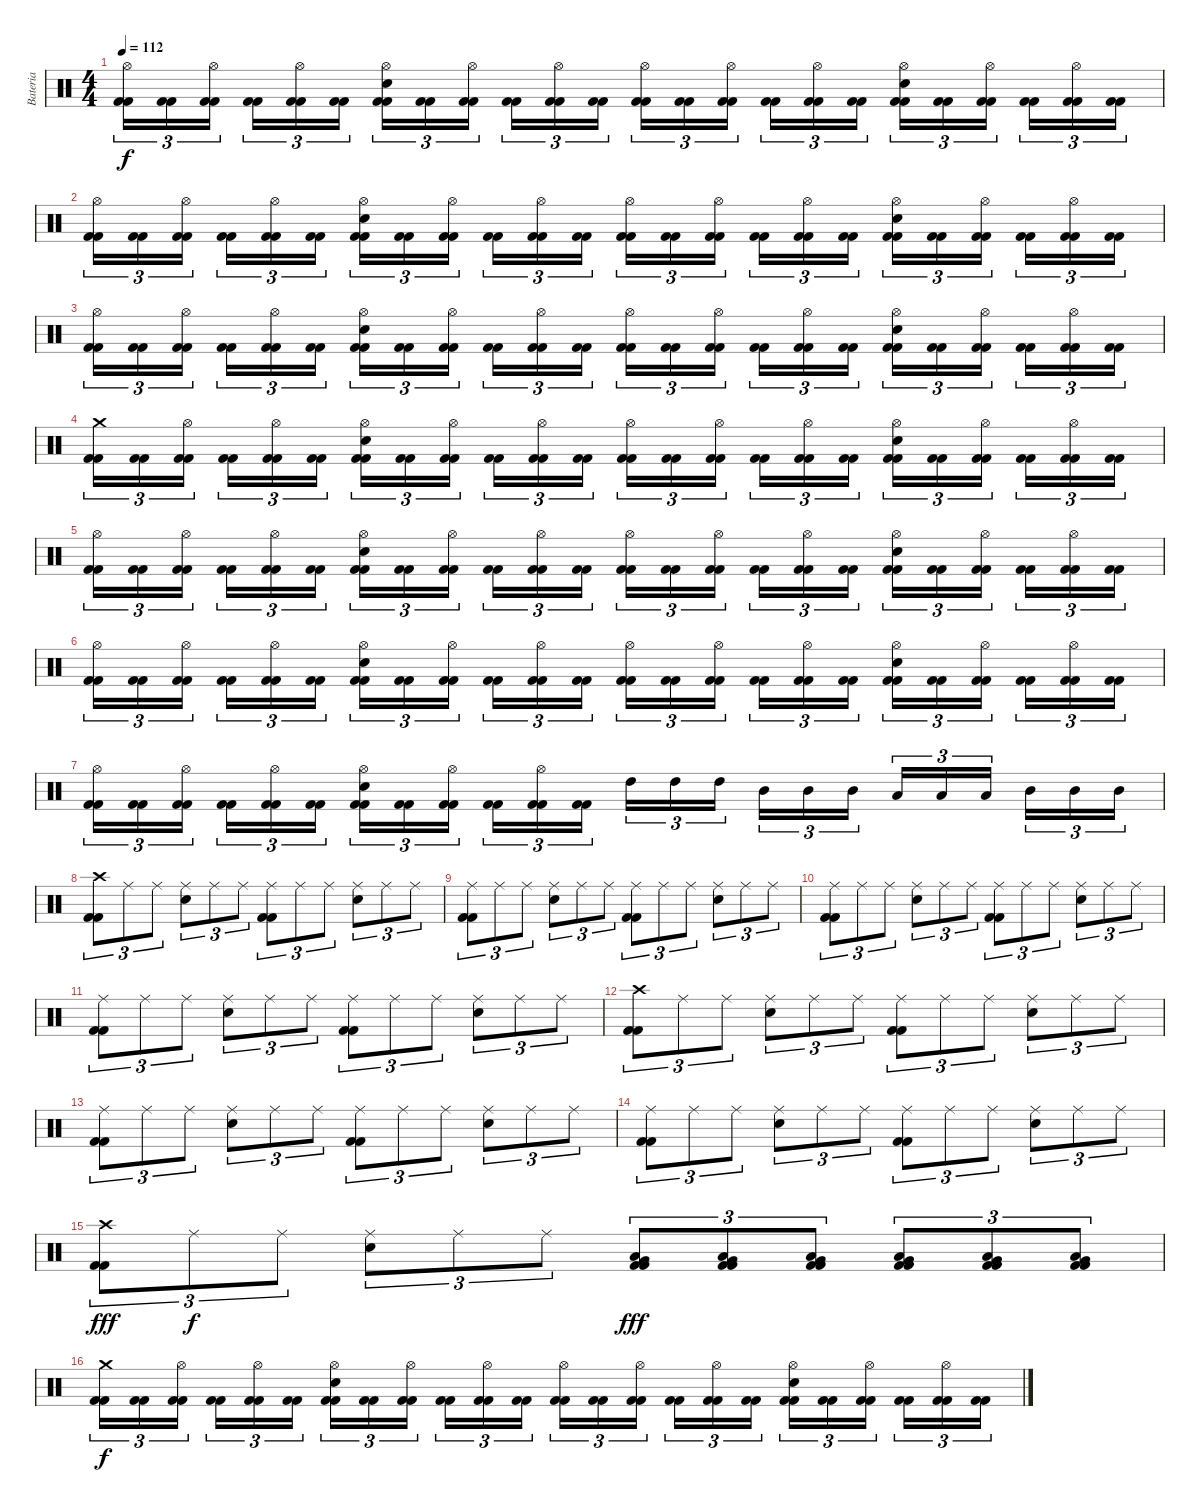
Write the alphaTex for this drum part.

\track ("Bateria" "Bateria") {instrument percussion}
\staff {score}
\articulation defaults
\ts (4 4)
\tempo 112
\clef neutral
\ks c
("Kick (hit) 2" "Kick (hit) 2" "Hi-Hat (open)").16{tu (3 2) dy f} ("Kick (hit) 2" "Kick (hit) 2").16{tu (3 2)} ("Kick (hit) 2" "Kick (hit) 2" "Hi-Hat (open)").16{tu (3 2)} ("Kick (hit) 2" "Kick (hit) 2").16{tu (3 2)} ("Kick (hit) 2" "Kick (hit) 2" "Hi-Hat (open)").16{tu (3 2)} ("Kick (hit) 2" "Kick (hit) 2").16{tu (3 2)} ("Kick (hit) 2" "Kick (hit) 2" "Snare (hit) 2" "Hi-Hat (open)").16{tu (3 2)} ("Kick (hit) 2" "Kick (hit) 2").16{tu (3 2)} ("Kick (hit) 2" "Kick (hit) 2" "Hi-Hat (open)").16{tu (3 2)} ("Kick (hit) 2" "Kick (hit) 2").16{tu (3 2)} ("Kick (hit) 2" "Kick (hit) 2" "Hi-Hat (open)").16{tu (3 2)} ("Kick (hit) 2" "Kick (hit) 2").16{tu (3 2)} ("Kick (hit) 2" "Kick (hit) 2" "Hi-Hat (open)").16{tu (3 2)} ("Kick (hit) 2" "Kick (hit) 2").16{tu (3 2)} ("Kick (hit) 2" "Kick (hit) 2" "Hi-Hat (open)").16{tu (3 2)} ("Kick (hit) 2" "Kick (hit) 2").16{tu (3 2)} ("Kick (hit) 2" "Kick (hit) 2" "Hi-Hat (open)").16{tu (3 2)} ("Kick (hit) 2" "Kick (hit) 2").16{tu (3 2)} ("Kick (hit) 2" "Kick (hit) 2" "Snare (hit) 2" "Hi-Hat (open)").16{tu (3 2)} ("Kick (hit) 2" "Kick (hit) 2").16{tu (3 2)} ("Kick (hit) 2" "Kick (hit) 2" "Hi-Hat (open)").16{tu (3 2)} ("Kick (hit) 2" "Kick (hit) 2").16{tu (3 2)} ("Kick (hit) 2" "Kick (hit) 2" "Hi-Hat (open)").16{tu (3 2)} ("Kick (hit) 2" "Kick (hit) 2").16{tu (3 2)} |
("Kick (hit) 2" "Kick (hit) 2" "Hi-Hat (open)").16{tu (3 2)} ("Kick (hit) 2" "Kick (hit) 2").16{tu (3 2)} ("Kick (hit) 2" "Kick (hit) 2" "Hi-Hat (open)").16{tu (3 2)} ("Kick (hit) 2" "Kick (hit) 2").16{tu (3 2)} ("Kick (hit) 2" "Kick (hit) 2" "Hi-Hat (open)").16{tu (3 2)} ("Kick (hit) 2" "Kick (hit) 2").16{tu (3 2)} ("Kick (hit) 2" "Kick (hit) 2" "Snare (hit) 2" "Hi-Hat (open)").16{tu (3 2)} ("Kick (hit) 2" "Kick (hit) 2").16{tu (3 2)} ("Kick (hit) 2" "Kick (hit) 2" "Hi-Hat (open)").16{tu (3 2)} ("Kick (hit) 2" "Kick (hit) 2").16{tu (3 2)} ("Kick (hit) 2" "Kick (hit) 2" "Hi-Hat (open)").16{tu (3 2)} ("Kick (hit) 2" "Kick (hit) 2").16{tu (3 2)} ("Kick (hit) 2" "Kick (hit) 2" "Hi-Hat (open)").16{tu (3 2)} ("Kick (hit) 2" "Kick (hit) 2").16{tu (3 2)} ("Kick (hit) 2" "Kick (hit) 2" "Hi-Hat (open)").16{tu (3 2)} ("Kick (hit) 2" "Kick (hit) 2").16{tu (3 2)} ("Kick (hit) 2" "Kick (hit) 2" "Hi-Hat (open)").16{tu (3 2)} ("Kick (hit) 2" "Kick (hit) 2").16{tu (3 2)} ("Kick (hit) 2" "Kick (hit) 2" "Snare (hit) 2" "Hi-Hat (open)").16{tu (3 2)} ("Kick (hit) 2" "Kick (hit) 2").16{tu (3 2)} ("Kick (hit) 2" "Kick (hit) 2" "Hi-Hat (open)").16{tu (3 2)} ("Kick (hit) 2" "Kick (hit) 2").16{tu (3 2)} ("Kick (hit) 2" "Kick (hit) 2" "Hi-Hat (open)").16{tu (3 2)} ("Kick (hit) 2" "Kick (hit) 2").16{tu (3 2)} |
("Kick (hit) 2" "Kick (hit) 2" "Hi-Hat (open)").16{tu (3 2)} ("Kick (hit) 2" "Kick (hit) 2").16{tu (3 2)} ("Kick (hit) 2" "Kick (hit) 2" "Hi-Hat (open)").16{tu (3 2)} ("Kick (hit) 2" "Kick (hit) 2").16{tu (3 2)} ("Kick (hit) 2" "Kick (hit) 2" "Hi-Hat (open)").16{tu (3 2)} ("Kick (hit) 2" "Kick (hit) 2").16{tu (3 2)} ("Kick (hit) 2" "Kick (hit) 2" "Snare (hit) 2" "Hi-Hat (open)").16{tu (3 2)} ("Kick (hit) 2" "Kick (hit) 2").16{tu (3 2)} ("Kick (hit) 2" "Kick (hit) 2" "Hi-Hat (open)").16{tu (3 2)} ("Kick (hit) 2" "Kick (hit) 2").16{tu (3 2)} ("Kick (hit) 2" "Kick (hit) 2" "Hi-Hat (open)").16{tu (3 2)} ("Kick (hit) 2" "Kick (hit) 2").16{tu (3 2)} ("Kick (hit) 2" "Kick (hit) 2" "Hi-Hat (open)").16{tu (3 2)} ("Kick (hit) 2" "Kick (hit) 2").16{tu (3 2)} ("Kick (hit) 2" "Kick (hit) 2" "Hi-Hat (open)").16{tu (3 2)} ("Kick (hit) 2" "Kick (hit) 2").16{tu (3 2)} ("Kick (hit) 2" "Kick (hit) 2" "Hi-Hat (open)").16{tu (3 2)} ("Kick (hit) 2" "Kick (hit) 2").16{tu (3 2)} ("Kick (hit) 2" "Kick (hit) 2" "Snare (hit) 2" "Hi-Hat (open)").16{tu (3 2)} ("Kick (hit) 2" "Kick (hit) 2").16{tu (3 2)} ("Kick (hit) 2" "Kick (hit) 2" "Hi-Hat (open)").16{tu (3 2)} ("Kick (hit) 2" "Kick (hit) 2").16{tu (3 2)} ("Kick (hit) 2" "Kick (hit) 2" "Hi-Hat (open)").16{tu (3 2)} ("Kick (hit) 2" "Kick (hit) 2").16{tu (3 2)} |
("Kick (hit) 2" "Kick (hit) 2" "Crash medium (hit)").16{tu (3 2)} ("Kick (hit) 2" "Kick (hit) 2").16{tu (3 2)} ("Kick (hit) 2" "Kick (hit) 2" "Hi-Hat (open)").16{tu (3 2)} ("Kick (hit) 2" "Kick (hit) 2").16{tu (3 2)} ("Kick (hit) 2" "Kick (hit) 2" "Hi-Hat (open)").16{tu (3 2)} ("Kick (hit) 2" "Kick (hit) 2").16{tu (3 2)} ("Kick (hit) 2" "Kick (hit) 2" "Snare (hit) 2" "Hi-Hat (open)").16{tu (3 2)} ("Kick (hit) 2" "Kick (hit) 2").16{tu (3 2)} ("Kick (hit) 2" "Kick (hit) 2" "Hi-Hat (open)").16{tu (3 2)} ("Kick (hit) 2" "Kick (hit) 2").16{tu (3 2)} ("Kick (hit) 2" "Kick (hit) 2" "Hi-Hat (open)").16{tu (3 2)} ("Kick (hit) 2" "Kick (hit) 2").16{tu (3 2)} ("Kick (hit) 2" "Kick (hit) 2" "Hi-Hat (open)").16{tu (3 2)} ("Kick (hit) 2" "Kick (hit) 2").16{tu (3 2)} ("Kick (hit) 2" "Kick (hit) 2" "Hi-Hat (open)").16{tu (3 2)} ("Kick (hit) 2" "Kick (hit) 2").16{tu (3 2)} ("Kick (hit) 2" "Kick (hit) 2" "Hi-Hat (open)").16{tu (3 2)} ("Kick (hit) 2" "Kick (hit) 2").16{tu (3 2)} ("Kick (hit) 2" "Kick (hit) 2" "Snare (hit) 2" "Hi-Hat (open)").16{tu (3 2)} ("Kick (hit) 2" "Kick (hit) 2").16{tu (3 2)} ("Kick (hit) 2" "Kick (hit) 2" "Hi-Hat (open)").16{tu (3 2)} ("Kick (hit) 2" "Kick (hit) 2").16{tu (3 2)} ("Kick (hit) 2" "Kick (hit) 2" "Hi-Hat (open)").16{tu (3 2)} ("Kick (hit) 2" "Kick (hit) 2").16{tu (3 2)} |
("Kick (hit) 2" "Kick (hit) 2" "Hi-Hat (open)").16{tu (3 2)} ("Kick (hit) 2" "Kick (hit) 2").16{tu (3 2)} ("Kick (hit) 2" "Kick (hit) 2" "Hi-Hat (open)").16{tu (3 2)} ("Kick (hit) 2" "Kick (hit) 2").16{tu (3 2)} ("Kick (hit) 2" "Kick (hit) 2" "Hi-Hat (open)").16{tu (3 2)} ("Kick (hit) 2" "Kick (hit) 2").16{tu (3 2)} ("Kick (hit) 2" "Kick (hit) 2" "Snare (hit) 2" "Hi-Hat (open)").16{tu (3 2)} ("Kick (hit) 2" "Kick (hit) 2").16{tu (3 2)} ("Kick (hit) 2" "Kick (hit) 2" "Hi-Hat (open)").16{tu (3 2)} ("Kick (hit) 2" "Kick (hit) 2").16{tu (3 2)} ("Kick (hit) 2" "Kick (hit) 2" "Hi-Hat (open)").16{tu (3 2)} ("Kick (hit) 2" "Kick (hit) 2").16{tu (3 2)} ("Kick (hit) 2" "Kick (hit) 2" "Hi-Hat (open)").16{tu (3 2)} ("Kick (hit) 2" "Kick (hit) 2").16{tu (3 2)} ("Kick (hit) 2" "Kick (hit) 2" "Hi-Hat (open)").16{tu (3 2)} ("Kick (hit) 2" "Kick (hit) 2").16{tu (3 2)} ("Kick (hit) 2" "Kick (hit) 2" "Hi-Hat (open)").16{tu (3 2)} ("Kick (hit) 2" "Kick (hit) 2").16{tu (3 2)} ("Kick (hit) 2" "Kick (hit) 2" "Snare (hit) 2" "Hi-Hat (open)").16{tu (3 2)} ("Kick (hit) 2" "Kick (hit) 2").16{tu (3 2)} ("Kick (hit) 2" "Kick (hit) 2" "Hi-Hat (open)").16{tu (3 2)} ("Kick (hit) 2" "Kick (hit) 2").16{tu (3 2)} ("Kick (hit) 2" "Kick (hit) 2" "Hi-Hat (open)").16{tu (3 2)} ("Kick (hit) 2" "Kick (hit) 2").16{tu (3 2)} |
("Kick (hit) 2" "Kick (hit) 2" "Hi-Hat (open)").16{tu (3 2)} ("Kick (hit) 2" "Kick (hit) 2").16{tu (3 2)} ("Kick (hit) 2" "Kick (hit) 2" "Hi-Hat (open)").16{tu (3 2)} ("Kick (hit) 2" "Kick (hit) 2").16{tu (3 2)} ("Kick (hit) 2" "Kick (hit) 2" "Hi-Hat (open)").16{tu (3 2)} ("Kick (hit) 2" "Kick (hit) 2").16{tu (3 2)} ("Kick (hit) 2" "Kick (hit) 2" "Snare (hit) 2" "Hi-Hat (open)").16{tu (3 2)} ("Kick (hit) 2" "Kick (hit) 2").16{tu (3 2)} ("Kick (hit) 2" "Kick (hit) 2" "Hi-Hat (open)").16{tu (3 2)} ("Kick (hit) 2" "Kick (hit) 2").16{tu (3 2)} ("Kick (hit) 2" "Kick (hit) 2" "Hi-Hat (open)").16{tu (3 2)} ("Kick (hit) 2" "Kick (hit) 2").16{tu (3 2)} ("Kick (hit) 2" "Kick (hit) 2" "Hi-Hat (open)").16{tu (3 2)} ("Kick (hit) 2" "Kick (hit) 2").16{tu (3 2)} ("Kick (hit) 2" "Kick (hit) 2" "Hi-Hat (open)").16{tu (3 2)} ("Kick (hit) 2" "Kick (hit) 2").16{tu (3 2)} ("Kick (hit) 2" "Kick (hit) 2" "Hi-Hat (open)").16{tu (3 2)} ("Kick (hit) 2" "Kick (hit) 2").16{tu (3 2)} ("Kick (hit) 2" "Kick (hit) 2" "Snare (hit) 2" "Hi-Hat (open)").16{tu (3 2)} ("Kick (hit) 2" "Kick (hit) 2").16{tu (3 2)} ("Kick (hit) 2" "Kick (hit) 2" "Hi-Hat (open)").16{tu (3 2)} ("Kick (hit) 2" "Kick (hit) 2").16{tu (3 2)} ("Kick (hit) 2" "Kick (hit) 2" "Hi-Hat (open)").16{tu (3 2)} ("Kick (hit) 2" "Kick (hit) 2").16{tu (3 2)} |
("Kick (hit) 2" "Kick (hit) 2" "Hi-Hat (open)").16{tu (3 2)} ("Kick (hit) 2" "Kick (hit) 2").16{tu (3 2)} ("Kick (hit) 2" "Kick (hit) 2" "Hi-Hat (open)").16{tu (3 2)} ("Kick (hit) 2" "Kick (hit) 2").16{tu (3 2)} ("Kick (hit) 2" "Kick (hit) 2" "Hi-Hat (open)").16{tu (3 2)} ("Kick (hit) 2" "Kick (hit) 2").16{tu (3 2)} ("Kick (hit) 2" "Kick (hit) 2" "Snare (hit) 2" "Hi-Hat (open)").16{tu (3 2)} ("Kick (hit) 2" "Kick (hit) 2").16{tu (3 2)} ("Kick (hit) 2" "Kick (hit) 2" "Hi-Hat (open)").16{tu (3 2)} ("Kick (hit) 2" "Kick (hit) 2").16{tu (3 2)} ("Kick (hit) 2" "Kick (hit) 2" "Hi-Hat (open)").16{tu (3 2)} ("Kick (hit) 2" "Kick (hit) 2").16{tu (3 2)} "High Tom (hit)".16{tu (3 2)} "High Tom (hit)".16{tu (3 2)} "High Tom (hit)".16{tu (3 2)} "Mid Tom (hit)".16{tu (3 2)} "Mid Tom (hit)".16{tu (3 2)} "Mid Tom (hit)".16{tu (3 2)} "Low Tom (hit)".16{tu (3 2)} "Low Tom (hit)".16{tu (3 2)} "Low Tom (hit)".16{tu (3 2)} "Mid Tom (hit)".16{tu (3 2)} "Mid Tom (hit)".16{tu (3 2)} "Mid Tom (hit)".16{tu (3 2)} |
("Kick (hit) 2" "Kick (hit) 2" "Crash high (hit)").8{tu (3 2)} "Ride (middle)".8{tu (3 2)} "Ride (middle)".8{tu (3 2)} ("Snare (hit) 2" "Ride (middle)").8{tu (3 2)} "Ride (middle)".8{tu (3 2)} "Ride (middle)".8{tu (3 2)} ("Kick (hit) 2" "Kick (hit) 2" "Ride (middle)").8{tu (3 2)} "Ride (middle)".8{tu (3 2)} "Ride (middle)".8{tu (3 2)} ("Snare (hit) 2" "Ride (middle)").8{tu (3 2)} "Ride (middle)".8{tu (3 2)} "Ride (middle)".8{tu (3 2)} |
("Kick (hit) 2" "Kick (hit) 2" "Ride (middle)").8{tu (3 2)} "Ride (middle)".8{tu (3 2)} "Ride (middle)".8{tu (3 2)} ("Snare (hit) 2" "Ride (middle)").8{tu (3 2)} "Ride (middle)".8{tu (3 2)} "Ride (middle)".8{tu (3 2)} ("Kick (hit) 2" "Kick (hit) 2" "Ride (middle)").8{tu (3 2)} "Ride (middle)".8{tu (3 2)} "Ride (middle)".8{tu (3 2)} ("Snare (hit) 2" "Ride (middle)").8{tu (3 2)} "Ride (middle)".8{tu (3 2)} "Ride (middle)".8{tu (3 2)} |
("Kick (hit) 2" "Kick (hit) 2" "Ride (middle)").8{tu (3 2)} "Ride (middle)".8{tu (3 2)} "Ride (middle)".8{tu (3 2)} ("Snare (hit) 2" "Ride (middle)").8{tu (3 2)} "Ride (middle)".8{tu (3 2)} "Ride (middle)".8{tu (3 2)} ("Kick (hit) 2" "Kick (hit) 2" "Ride (middle)").8{tu (3 2)} "Ride (middle)".8{tu (3 2)} "Ride (middle)".8{tu (3 2)} ("Snare (hit) 2" "Ride (middle)").8{tu (3 2)} "Ride (middle)".8{tu (3 2)} "Ride (middle)".8{tu (3 2)} |
("Kick (hit) 2" "Kick (hit) 2" "Ride (middle)").8{tu (3 2)} "Ride (middle)".8{tu (3 2)} "Ride (middle)".8{tu (3 2)} ("Snare (hit) 2" "Ride (middle)").8{tu (3 2)} "Ride (middle)".8{tu (3 2)} "Ride (middle)".8{tu (3 2)} ("Kick (hit) 2" "Kick (hit) 2" "Ride (middle)").8{tu (3 2)} "Ride (middle)".8{tu (3 2)} "Ride (middle)".8{tu (3 2)} ("Snare (hit) 2" "Ride (middle)").8{tu (3 2)} "Ride (middle)".8{tu (3 2)} "Ride (middle)".8{tu (3 2)} |
("Kick (hit) 2" "Kick (hit) 2" "Crash high (hit)").8{tu (3 2)} "Ride (middle)".8{tu (3 2)} "Ride (middle)".8{tu (3 2)} ("Snare (hit) 2" "Ride (middle)").8{tu (3 2)} "Ride (middle)".8{tu (3 2)} "Ride (middle)".8{tu (3 2)} ("Kick (hit) 2" "Kick (hit) 2" "Ride (middle)").8{tu (3 2)} "Ride (middle)".8{tu (3 2)} "Ride (middle)".8{tu (3 2)} ("Snare (hit) 2" "Ride (middle)").8{tu (3 2)} "Ride (middle)".8{tu (3 2)} "Ride (middle)".8{tu (3 2)} |
("Kick (hit) 2" "Kick (hit) 2" "Ride (middle)").8{tu (3 2)} "Ride (middle)".8{tu (3 2)} "Ride (middle)".8{tu (3 2)} ("Snare (hit) 2" "Ride (middle)").8{tu (3 2)} "Ride (middle)".8{tu (3 2)} "Ride (middle)".8{tu (3 2)} ("Kick (hit) 2" "Kick (hit) 2" "Ride (middle)").8{tu (3 2)} "Ride (middle)".8{tu (3 2)} "Ride (middle)".8{tu (3 2)} ("Snare (hit) 2" "Ride (middle)").8{tu (3 2)} "Ride (middle)".8{tu (3 2)} "Ride (middle)".8{tu (3 2)} |
("Kick (hit) 2" "Kick (hit) 2" "Ride (middle)").8{tu (3 2)} "Ride (middle)".8{tu (3 2)} "Ride (middle)".8{tu (3 2)} ("Snare (hit) 2" "Ride (middle)").8{tu (3 2)} "Ride (middle)".8{tu (3 2)} "Ride (middle)".8{tu (3 2)} ("Kick (hit) 2" "Kick (hit) 2" "Ride (middle)").8{tu (3 2)} "Ride (middle)".8{tu (3 2)} "Ride (middle)".8{tu (3 2)} ("Snare (hit) 2" "Ride (middle)").8{tu (3 2)} "Ride (middle)".8{tu (3 2)} "Ride (middle)".8{tu (3 2)} |
("Kick (hit) 2" "Kick (hit) 2" "Crash high (hit)").8{tu (3 2) dy fff} "Ride (middle)".8{tu (3 2) dy f} "Ride (middle)".8{tu (3 2)} ("Snare (hit) 2" "Ride (middle)").8{tu (3 2)} "Ride (middle)".8{tu (3 2)} "Ride (middle)".8{tu (3 2)} ("Kick (hit) 2" "Kick (hit) 2" "Very Low Tom (hit)" "Low Tom (hit)").8{tu (3 2) dy fff} ("Kick (hit) 2" "Kick (hit) 2" "Very Low Tom (hit)" "Low Tom (hit)").8{tu (3 2)} ("Kick (hit) 2" "Kick (hit) 2" "Very Low Tom (hit)" "Low Tom (hit)").8{tu (3 2)} ("Kick (hit) 2" "Kick (hit) 2" "Very Low Tom (hit)" "Low Tom (hit)").8{tu (3 2)} ("Kick (hit) 2" "Kick (hit) 2" "Very Low Tom (hit)" "Low Tom (hit)").8{tu (3 2)} ("Kick (hit) 2" "Kick (hit) 2" "Very Low Tom (hit)" "Low Tom (hit)").8{tu (3 2)} |
("Kick (hit) 2" "Kick (hit) 2" "Crash medium (hit)").16{tu (3 2) dy f volume 8} ("Kick (hit) 2" "Kick (hit) 2").16{tu (3 2)} ("Kick (hit) 2" "Kick (hit) 2" "Hi-Hat (open)").16{tu (3 2)} ("Kick (hit) 2" "Kick (hit) 2").16{tu (3 2)} ("Kick (hit) 2" "Kick (hit) 2" "Hi-Hat (open)").16{tu (3 2)} ("Kick (hit) 2" "Kick (hit) 2").16{tu (3 2)} ("Kick (hit) 2" "Kick (hit) 2" "Snare (hit) 2" "Hi-Hat (open)").16{tu (3 2)} ("Kick (hit) 2" "Kick (hit) 2").16{tu (3 2)} ("Kick (hit) 2" "Kick (hit) 2" "Hi-Hat (open)").16{tu (3 2)} ("Kick (hit) 2" "Kick (hit) 2").16{tu (3 2)} ("Kick (hit) 2" "Kick (hit) 2" "Hi-Hat (open)").16{tu (3 2)} ("Kick (hit) 2" "Kick (hit) 2").16{tu (3 2)} ("Kick (hit) 2" "Kick (hit) 2" "Hi-Hat (open)").16{tu (3 2)} ("Kick (hit) 2" "Kick (hit) 2").16{tu (3 2)} ("Kick (hit) 2" "Kick (hit) 2" "Hi-Hat (open)").16{tu (3 2)} ("Kick (hit) 2" "Kick (hit) 2").16{tu (3 2)} ("Kick (hit) 2" "Kick (hit) 2" "Hi-Hat (open)").16{tu (3 2)} ("Kick (hit) 2" "Kick (hit) 2").16{tu (3 2)} ("Kick (hit) 2" "Kick (hit) 2" "Snare (hit) 2" "Hi-Hat (open)").16{tu (3 2)} ("Kick (hit) 2" "Kick (hit) 2").16{tu (3 2)} ("Kick (hit) 2" "Kick (hit) 2" "Hi-Hat (open)").16{tu (3 2)} ("Kick (hit) 2" "Kick (hit) 2").16{tu (3 2)} ("Kick (hit) 2" "Kick (hit) 2" "Hi-Hat (open)").16{tu (3 2)} ("Kick (hit) 2" "Kick (hit) 2").16{tu (3 2)}
